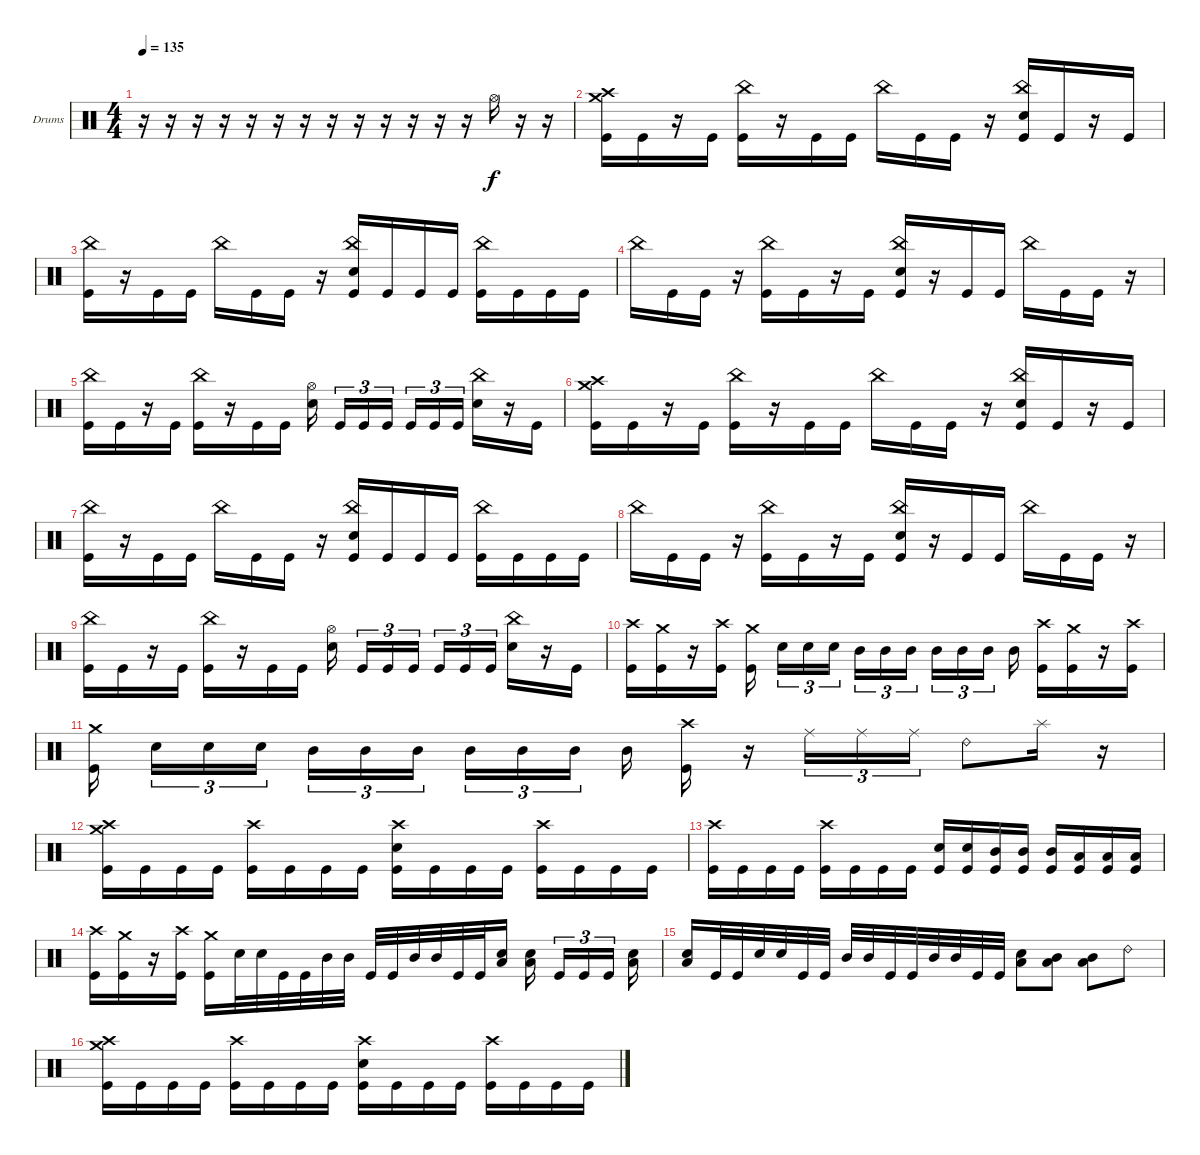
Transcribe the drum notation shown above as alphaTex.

\bracketExtendMode groupsimilarinstruments
\firstSystemTrackNameOrientation horizontal
\otherSystemsTrackNameOrientation horizontal
\track ("Drumkit" "Drums") {instrument percussion}
\staff {score}
\articulation defaults
\ts (4 4)
\tempo 135
\clef neutral
\ks c
r.16{dy f} r.16 r.16 r.16 r.16 r.16 r.16 r.16 r.16 r.16 r.16 r.16 r.16 "Hi-Hat (open)".16 r.16 r.16 |
("Crash high (hit)" "Crash medium (hit)" "Kick (hit)").16 "Kick (hit)".16 r.16 "Kick (hit)".16 ("China (hit)" "Kick (hit)").16 r.16 "Kick (hit)".16 "Kick (hit)".16 "China (hit)".16 "Kick (hit)".16 "Kick (hit)".16 r.16 ("China (hit)" "Snare (hit) 2" "Kick (hit)").16 "Kick (hit)".16 r.16 "Kick (hit)".16 |
("China (hit)" "Kick (hit)").16 r.16 "Kick (hit)".16 "Kick (hit)".16 "China (hit)".16 "Kick (hit)".16 "Kick (hit)".16 r.16 ("China (hit)" "Snare (hit) 2" "Kick (hit)").16 "Kick (hit)".16 "Kick (hit)".16 "Kick (hit)".16 ("China (hit)" "Kick (hit)").16 "Kick (hit)".16 "Kick (hit)".16 "Kick (hit)".16 |
"China (hit)".16 "Kick (hit)".16 "Kick (hit)".16 r.16 ("China (hit)" "Kick (hit)").16 "Kick (hit)".16 r.16 "Kick (hit)".16 ("China (hit)" "Snare (hit) 2" "Kick (hit)").16 r.16 "Kick (hit)".16 "Kick (hit)".16 "China (hit)".16 "Kick (hit)".16 "Kick (hit)".16 r.16 |
("China (hit)" "Kick (hit)").16 "Kick (hit)".16 r.16 "Kick (hit)".16 ("China (hit)" "Kick (hit)").16 r.16 "Kick (hit)".16 "Kick (hit)".16 ("Hi-Hat (open)" "Snare (hit) 2").16 "Kick (hit)".16{tu (3 2)} "Kick (hit)".16{tu (3 2)} "Kick (hit)".16{tu (3 2)} "Kick (hit)".16{tu (3 2)} "Kick (hit)".16{tu (3 2)} "Kick (hit)".16{tu (3 2)} ("China (hit)" "Snare (hit) 2").16 r.16 "Kick (hit)".16 |
("Crash medium (hit)" "Crash high (hit)" "Kick (hit)").16 "Kick (hit)".16 r.16 "Kick (hit)".16 ("China (hit)" "Kick (hit)").16 r.16 "Kick (hit)".16 "Kick (hit)".16 "China (hit)".16 "Kick (hit)".16 "Kick (hit)".16 r.16 ("China (hit)" "Snare (hit) 2" "Kick (hit)").16 "Kick (hit)".16 r.16 "Kick (hit)".16 |
("China (hit)" "Kick (hit)").16 r.16 "Kick (hit)".16 "Kick (hit)".16 "China (hit)".16 "Kick (hit)".16 "Kick (hit)".16 r.16 ("China (hit)" "Snare (hit) 2" "Kick (hit)").16 "Kick (hit)".16 "Kick (hit)".16 "Kick (hit)".16 ("China (hit)" "Kick (hit)").16 "Kick (hit)".16 "Kick (hit)".16 "Kick (hit)".16 |
"China (hit)".16 "Kick (hit)".16 "Kick (hit)".16 r.16 ("China (hit)" "Kick (hit)").16 "Kick (hit)".16 r.16 "Kick (hit)".16 ("China (hit)" "Snare (hit) 2" "Kick (hit)").16 r.16 "Kick (hit)".16 "Kick (hit)".16 "China (hit)".16 "Kick (hit)".16 "Kick (hit)".16 r.16 |
("China (hit)" "Kick (hit)").16 "Kick (hit)".16 r.16 "Kick (hit)".16 ("China (hit)" "Kick (hit)").16 r.16 "Kick (hit)".16 "Kick (hit)".16 ("Hi-Hat (open)" "Snare (hit) 2").16 "Kick (hit)".16{tu (3 2)} "Kick (hit)".16{tu (3 2)} "Kick (hit)".16{tu (3 2)} "Kick (hit)".16{tu (3 2)} "Kick (hit)".16{tu (3 2)} "Kick (hit)".16{tu (3 2)} ("China (hit)" "Snare (hit) 2").16 r.16 "Kick (hit)".16 |
("Crash high (hit)" "Kick (hit)").16 ("Crash medium (hit)" "Kick (hit)").16 r.16 ("Crash high (hit)" "Kick (hit)").16 ("Crash medium (hit)" "Kick (hit)").16 "Snare (hit) 2".16{tu (3 2)} "Snare (hit) 2".16{tu (3 2)} "Snare (hit) 2".16{tu (3 2)} "Mid Tom (hit)".16{tu (3 2)} "Mid Tom (hit)".16{tu (3 2)} "Mid Tom (hit)".16{tu (3 2)} "Mid Tom (hit)".16{tu (3 2)} "Mid Tom (hit)".16{tu (3 2)} "Mid Tom (hit)".16{tu (3 2)} "Mid Tom (hit)".16 ("Crash high (hit)" "Kick (hit)").16 ("Crash medium (hit)" "Kick (hit)").16 r.16 ("Crash high (hit)" "Kick (hit)").16 |
("Crash medium (hit)" "Kick (hit)").16 "Snare (hit) 2".16{tu (3 2)} "Snare (hit) 2".16{tu (3 2)} "Snare (hit) 2".16{tu (3 2)} "Mid Tom (hit)".16{tu (3 2)} "Mid Tom (hit)".16{tu (3 2)} "Mid Tom (hit)".16{tu (3 2)} "Mid Tom (hit)".16{tu (3 2)} "Mid Tom (hit)".16{tu (3 2)} "Mid Tom (hit)".16{tu (3 2)} "Mid Tom (hit)".16 ("Crash high (hit)" "Kick (hit)").16 r.16 "Ride (middle)".16{tu (3 2)} "Ride (middle)".16{tu (3 2)} "Ride (middle)".16{tu (3 2)} "Ride (bell) 2".8 "Splash (hit)".16 r.16 |
("Crash medium (hit)" "Crash high (hit)" "Kick (hit)").16 "Kick (hit)".16 "Kick (hit)".16 "Kick (hit)".16 ("Crash high (hit)" "Kick (hit)").16 "Kick (hit)".16 "Kick (hit)".16 "Kick (hit)".16 ("Crash high (hit)" "Snare (hit) 2" "Kick (hit)").16 "Kick (hit)".16 "Kick (hit)".16 "Kick (hit)".16 ("Crash high (hit)" "Kick (hit)").16 "Kick (hit)".16 "Kick (hit)".16 "Kick (hit)".16 |
("Crash high (hit)" "Kick (hit)").16 "Kick (hit)".16 "Kick (hit)".16 "Kick (hit)".16 ("Crash high (hit)" "Kick (hit)").16 "Kick (hit)".16 "Kick (hit)".16 "Kick (hit)".16 ("Snare (hit) 2" "Kick (hit)").16 ("Snare (hit) 2" "Kick (hit)").16 ("Mid Tom (hit)" "Kick (hit)").16 ("Mid Tom (hit)" "Kick (hit)").16 ("Mid Tom (hit)" "Kick (hit)").16 ("Low Tom (hit)" "Kick (hit)").16 ("Low Tom (hit)" "Kick (hit)").16 ("Low Tom (hit)" "Kick (hit)").16 |
("Crash high (hit)" "Kick (hit)").16 ("Crash medium (hit)" "Kick (hit)").16 r.16 ("Crash high (hit)" "Kick (hit)").16 ("Crash medium (hit)" "Kick (hit)").16 "Snare (hit) 2".32 "Snare (hit) 2".32 "Kick (hit)".32 "Kick (hit)".32 "Mid Tom (hit)".32 "Mid Tom (hit)".32 "Kick (hit)".32 "Kick (hit)".32 "Mid Tom (hit)".32 "Mid Tom (hit)".32 "Kick (hit)".32 "Kick (hit)".32 ("Low Tom (hit)" "Snare (hit) 2").16 ("Low Tom (hit)" "Snare (hit) 2").16 "Kick (hit)".16{tu (3 2)} "Kick (hit)".16{tu (3 2)} "Kick (hit)".16{tu (3 2)} ("Low Tom (hit)" "Snare (hit) 2").16 |
("Low Tom (hit)" "Snare (hit) 2").16 "Kick (hit)".32 "Kick (hit)".32 "Snare (hit) 2".32 "Snare (hit) 2".32 "Kick (hit)".32 "Kick (hit)".32 "Mid Tom (hit)".32 "Mid Tom (hit)".32 "Kick (hit)".32 "Kick (hit)".32 "Mid Tom (hit)".32 "Mid Tom (hit)".32 "Kick (hit)".32 "Kick (hit)".32 ("Low Tom (hit)" "Snare (hit) 2").8 ("Mid Tom (hit)" "Low Tom (hit)").8 ("Mid Tom (hit)" "Low Tom (hit)").8 "Ride (bell) 2".8 |
("Crash high (hit)" "Crash medium (hit)" "Kick (hit)").16 "Kick (hit)".16 "Kick (hit)".16 "Kick (hit)".16 ("Crash high (hit)" "Kick (hit)").16 "Kick (hit)".16 "Kick (hit)".16 "Kick (hit)".16 ("Crash high (hit)" "Snare (hit) 2" "Kick (hit)").16 "Kick (hit)".16 "Kick (hit)".16 "Kick (hit)".16 ("Crash high (hit)" "Kick (hit)").16 "Kick (hit)".16 "Kick (hit)".16 "Kick (hit)".16
